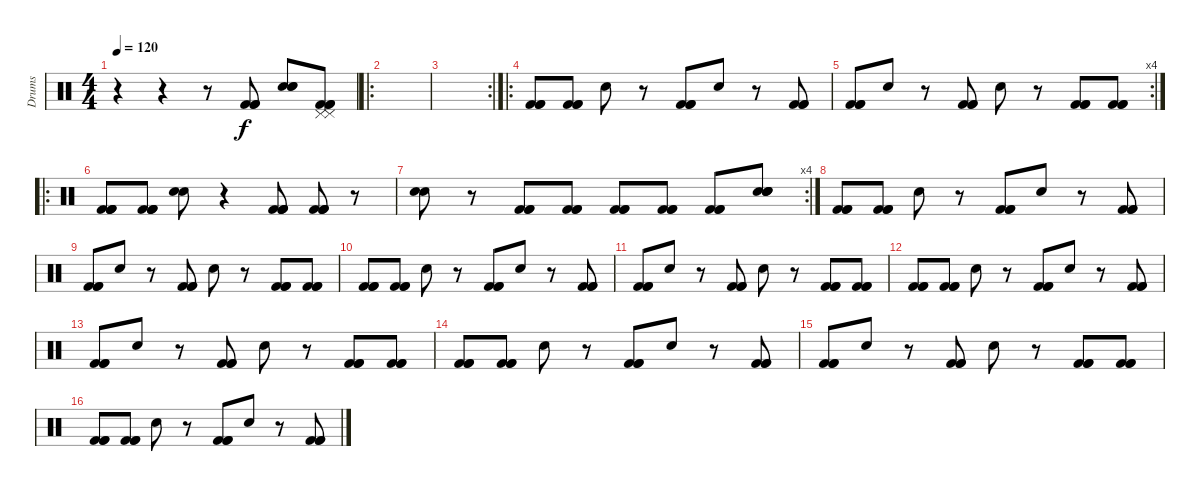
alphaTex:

\track ("Drums" "Drums") {instrument percussion}
\staff {score}
\articulation defaults
\ts (4 4)
\tempo 120
\clef neutral
\ks c
r.4{dy f} r.4 r.8 ("Kick (hit) 2" "Kick (hit) 2" "Kick (hit) 2").8 ("Snare (hit) 2" "Snare (hit) 2" "Snare (hit) 2").8 ("Kick (hit) 2" "Kick (hit) 2" "Kick (hit) 2" "Pedal Hi-Hat (hit)" "Pedal Hi-Hat (hit)").8 |
\ro
|
\rc 2
|
\ro
("Kick (hit) 2" "Kick (hit) 2" "Kick (hit) 2").8 ("Kick (hit) 2" "Kick (hit) 2" "Kick (hit) 2").8 "Snare (hit) 2".8 r.8 ("Kick (hit) 2" "Kick (hit) 2" "Kick (hit) 2").8 "Snare (hit) 2".8 r.8 ("Kick (hit) 2" "Kick (hit) 2" "Kick (hit) 2").8 |
\rc 4
("Kick (hit) 2" "Kick (hit) 2" "Kick (hit) 2").8 "Snare (hit) 2".8 r.8 ("Kick (hit) 2" "Kick (hit) 2" "Kick (hit) 2").8 "Snare (hit) 2".8 r.8 ("Kick (hit) 2" "Kick (hit) 2" "Kick (hit) 2").8 ("Kick (hit) 2" "Kick (hit) 2" "Kick (hit) 2").8 |
\ro
("Kick (hit) 2" "Kick (hit) 2" "Kick (hit) 2" "Kick (hit) 2").8 ("Kick (hit) 2" "Kick (hit) 2" "Kick (hit) 2" "Kick (hit) 2").8 ("Snare (hit) 2" "Snare (hit) 2").8 r.4 ("Kick (hit) 2" "Kick (hit) 2" "Kick (hit) 2" "Kick (hit) 2").8 ("Kick (hit) 2" "Kick (hit) 2" "Kick (hit) 2" "Kick (hit) 2").8 r.8 |
\rc 4
("Snare (hit) 2" "Snare (hit) 2").8 r.8 ("Kick (hit) 2" "Kick (hit) 2" "Kick (hit) 2").8 ("Kick (hit) 2" "Kick (hit) 2" "Kick (hit) 2").8 ("Kick (hit) 2" "Kick (hit) 2" "Kick (hit) 2").8 ("Kick (hit) 2" "Kick (hit) 2" "Kick (hit) 2").8 ("Kick (hit) 2" "Kick (hit) 2" "Kick (hit) 2").8 ("Snare (hit) 2" "Snare (hit) 2" "Snare (hit) 2" "Snare (hit) 2").8 |
("Kick (hit) 2" "Kick (hit) 2" "Kick (hit) 2").8 ("Kick (hit) 2" "Kick (hit) 2" "Kick (hit) 2").8 "Snare (hit) 2".8 r.8 ("Kick (hit) 2" "Kick (hit) 2" "Kick (hit) 2").8 "Snare (hit) 2".8 r.8 ("Kick (hit) 2" "Kick (hit) 2" "Kick (hit) 2").8 |
("Kick (hit) 2" "Kick (hit) 2" "Kick (hit) 2").8 "Snare (hit) 2".8 r.8 ("Kick (hit) 2" "Kick (hit) 2" "Kick (hit) 2").8 "Snare (hit) 2".8 r.8 ("Kick (hit) 2" "Kick (hit) 2" "Kick (hit) 2").8 ("Kick (hit) 2" "Kick (hit) 2" "Kick (hit) 2").8 |
("Kick (hit) 2" "Kick (hit) 2" "Kick (hit) 2").8 ("Kick (hit) 2" "Kick (hit) 2" "Kick (hit) 2").8 "Snare (hit) 2".8 r.8 ("Kick (hit) 2" "Kick (hit) 2" "Kick (hit) 2").8 "Snare (hit) 2".8 r.8 ("Kick (hit) 2" "Kick (hit) 2" "Kick (hit) 2").8 |
("Kick (hit) 2" "Kick (hit) 2" "Kick (hit) 2").8 "Snare (hit) 2".8 r.8 ("Kick (hit) 2" "Kick (hit) 2" "Kick (hit) 2").8 "Snare (hit) 2".8 r.8 ("Kick (hit) 2" "Kick (hit) 2" "Kick (hit) 2").8 ("Kick (hit) 2" "Kick (hit) 2" "Kick (hit) 2").8 |
("Kick (hit) 2" "Kick (hit) 2" "Kick (hit) 2").8 ("Kick (hit) 2" "Kick (hit) 2" "Kick (hit) 2").8 "Snare (hit) 2".8 r.8 ("Kick (hit) 2" "Kick (hit) 2" "Kick (hit) 2").8 "Snare (hit) 2".8 r.8 ("Kick (hit) 2" "Kick (hit) 2" "Kick (hit) 2").8 |
("Kick (hit) 2" "Kick (hit) 2" "Kick (hit) 2").8 "Snare (hit) 2".8 r.8 ("Kick (hit) 2" "Kick (hit) 2" "Kick (hit) 2").8 "Snare (hit) 2".8 r.8 ("Kick (hit) 2" "Kick (hit) 2" "Kick (hit) 2").8 ("Kick (hit) 2" "Kick (hit) 2" "Kick (hit) 2").8 |
("Kick (hit) 2" "Kick (hit) 2" "Kick (hit) 2").8 ("Kick (hit) 2" "Kick (hit) 2" "Kick (hit) 2").8 "Snare (hit) 2".8 r.8 ("Kick (hit) 2" "Kick (hit) 2" "Kick (hit) 2").8 "Snare (hit) 2".8 r.8 ("Kick (hit) 2" "Kick (hit) 2" "Kick (hit) 2").8 |
("Kick (hit) 2" "Kick (hit) 2" "Kick (hit) 2").8 "Snare (hit) 2".8 r.8 ("Kick (hit) 2" "Kick (hit) 2" "Kick (hit) 2").8 "Snare (hit) 2".8 r.8 ("Kick (hit) 2" "Kick (hit) 2" "Kick (hit) 2").8 ("Kick (hit) 2" "Kick (hit) 2" "Kick (hit) 2").8 |
("Kick (hit) 2" "Kick (hit) 2" "Kick (hit) 2").8 ("Kick (hit) 2" "Kick (hit) 2" "Kick (hit) 2").8 "Snare (hit) 2".8 r.8 ("Kick (hit) 2" "Kick (hit) 2" "Kick (hit) 2").8 "Snare (hit) 2".8 r.8 ("Kick (hit) 2" "Kick (hit) 2" "Kick (hit) 2").8
